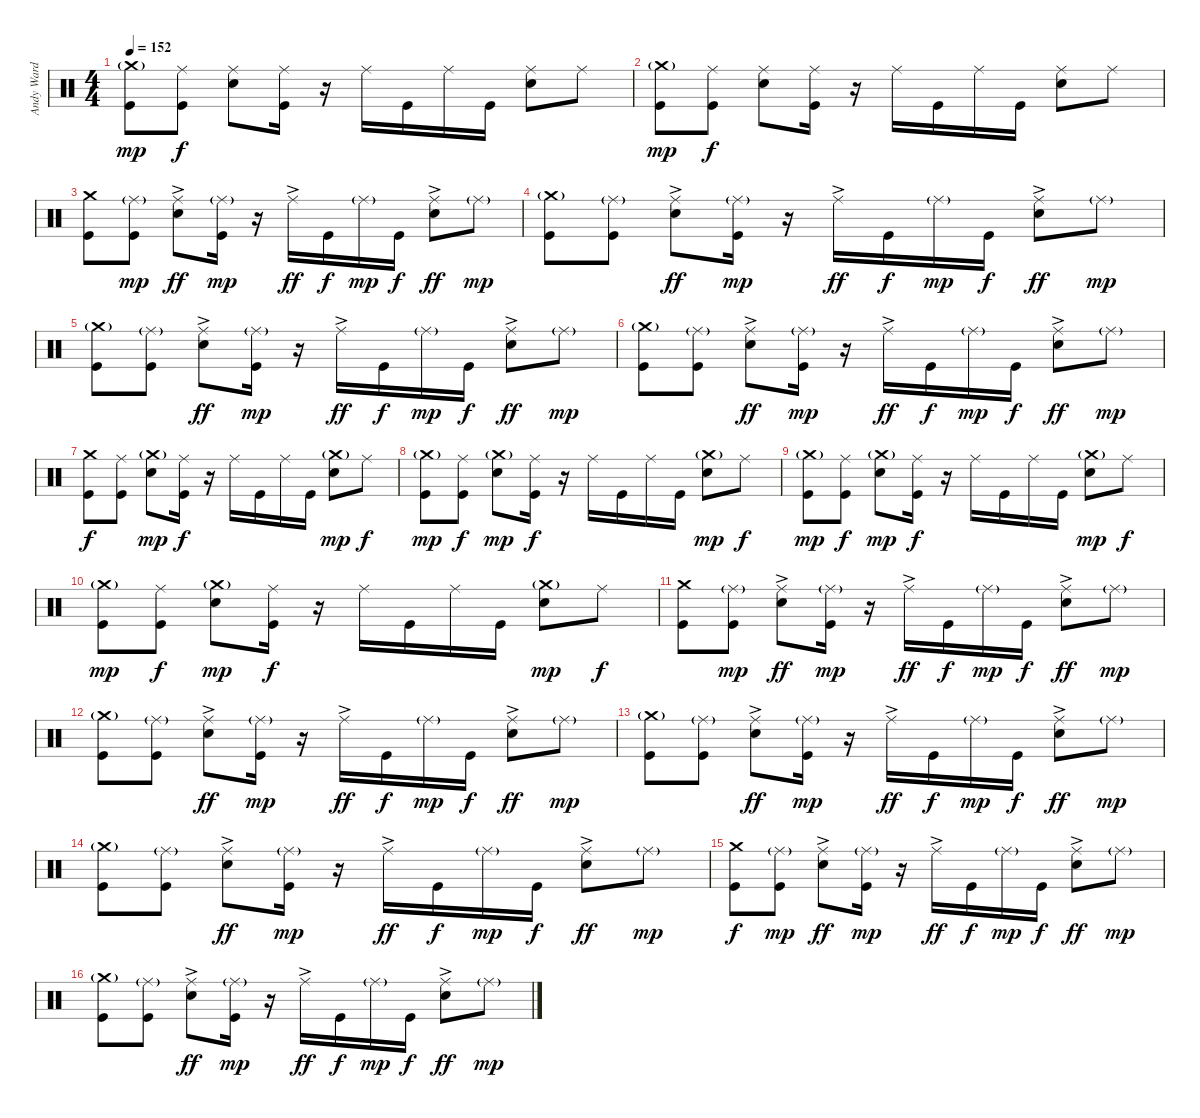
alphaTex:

\track ("Andy Ward (Drums)" "Andy Ward ") {instrument percussion}
\staff {score}
\articulation defaults
\ts (4 4)
\tempo 152
\clef neutral
\ks c
("Crash medium (hit)"{g} "Kick (hit)").8{dy mp} ("Ride (middle)" "Kick (hit)").8{dy f} ("Ride (middle)" "Electric Snare (hit)").8 ("Ride (middle)" "Kick (hit)").16 r.16 "Ride (middle)".16 "Kick (hit)".16 "Ride (middle)".16 "Kick (hit)".16 ("Ride (middle)" "Electric Snare (hit)").8 "Ride (middle)".8 |
("Crash medium (hit)"{g} "Kick (hit)").8{dy mp} ("Ride (middle)" "Kick (hit)").8{dy f} ("Ride (middle)" "Electric Snare (hit)").8 ("Ride (middle)" "Kick (hit)").16 r.16 "Ride (middle)".16 "Kick (hit)".16 "Ride (middle)".16 "Kick (hit)".16 ("Ride (middle)" "Electric Snare (hit)").8 "Ride (middle)".8 |
("Crash medium (hit)" "Kick (hit)").8 ("Ride (middle)"{g} "Kick (hit)").8{dy mp} ("Ride (middle)"{ac} "Electric Snare (hit)").8{dy ff} ("Ride (middle)"{g} "Kick (hit)").16{dy mp} r.16 "Ride (middle)"{ac}.16{dy ff} "Kick (hit)".16{dy f} "Ride (middle)"{g}.16{dy mp} "Kick (hit)".16{dy f} ("Ride (middle)"{ac} "Electric Snare (hit)").8{dy ff} "Ride (middle)"{g}.8{dy mp} |
("Crash medium (hit)"{g} "Kick (hit)").8 ("Ride (middle)"{g} "Kick (hit)").8 ("Ride (middle)"{ac} "Electric Snare (hit)").8{dy ff} ("Ride (middle)"{g} "Kick (hit)").16{dy mp} r.16 "Ride (middle)"{ac}.16{dy ff} "Kick (hit)".16{dy f} "Ride (middle)"{g}.16{dy mp} "Kick (hit)".16{dy f} ("Ride (middle)"{ac} "Electric Snare (hit)").8{dy ff} "Ride (middle)"{g}.8{dy mp} |
("Crash medium (hit)"{g} "Kick (hit)").8 ("Ride (middle)"{g} "Kick (hit)").8 ("Ride (middle)"{ac} "Electric Snare (hit)").8{dy ff} ("Ride (middle)"{g} "Kick (hit)").16{dy mp} r.16 "Ride (middle)"{ac}.16{dy ff} "Kick (hit)".16{dy f} "Ride (middle)"{g}.16{dy mp} "Kick (hit)".16{dy f} ("Ride (middle)"{ac} "Electric Snare (hit)").8{dy ff} "Ride (middle)"{g}.8{dy mp} |
("Crash medium (hit)"{g} "Kick (hit)").8 ("Ride (middle)"{g} "Kick (hit)").8 ("Ride (middle)"{ac} "Electric Snare (hit)").8{dy ff} ("Ride (middle)"{g} "Kick (hit)").16{dy mp} r.16 "Ride (middle)"{ac}.16{dy ff} "Kick (hit)".16{dy f} "Ride (middle)"{g}.16{dy mp} "Kick (hit)".16{dy f} ("Ride (middle)"{ac} "Electric Snare (hit)").8{dy ff} "Ride (middle)"{g}.8{dy mp} |
("Crash medium (hit)" "Kick (hit)").8{dy f} ("Ride (middle)" "Kick (hit)").8 ("Crash medium (hit)"{g} "Electric Snare (hit)").8{dy mp} ("Ride (middle)" "Kick (hit)").16{dy f} r.16 "Ride (middle)".16 "Kick (hit)".16 "Ride (middle)".16 "Kick (hit)".16 ("Crash medium (hit)"{g} "Electric Snare (hit)").8{dy mp} "Ride (middle)".8{dy f} |
("Crash medium (hit)"{g} "Kick (hit)").8{dy mp} ("Ride (middle)" "Kick (hit)").8{dy f} ("Crash medium (hit)"{g} "Electric Snare (hit)").8{dy mp} ("Ride (middle)" "Kick (hit)").16{dy f} r.16 "Ride (middle)".16 "Kick (hit)".16 "Ride (middle)".16 "Kick (hit)".16 ("Crash medium (hit)"{g} "Electric Snare (hit)").8{dy mp} "Ride (middle)".8{dy f} |
("Crash medium (hit)"{g} "Kick (hit)").8{dy mp} ("Ride (middle)" "Kick (hit)").8{dy f} ("Crash medium (hit)"{g} "Electric Snare (hit)").8{dy mp} ("Ride (middle)" "Kick (hit)").16{dy f} r.16 "Ride (middle)".16 "Kick (hit)".16 "Ride (middle)".16 "Kick (hit)".16 ("Crash medium (hit)"{g} "Electric Snare (hit)").8{dy mp} "Ride (middle)".8{dy f} |
("Crash medium (hit)"{g} "Kick (hit)").8{dy mp} ("Ride (middle)" "Kick (hit)").8{dy f} ("Crash medium (hit)"{g} "Electric Snare (hit)").8{dy mp} ("Ride (middle)" "Kick (hit)").16{dy f} r.16 "Ride (middle)".16 "Kick (hit)".16 "Ride (middle)".16 "Kick (hit)".16 ("Crash medium (hit)"{g} "Electric Snare (hit)").8{dy mp} "Ride (middle)".8{dy f} |
("Crash medium (hit)" "Kick (hit)").8 ("Ride (middle)"{g} "Kick (hit)").8{dy mp} ("Ride (middle)"{ac} "Electric Snare (hit)").8{dy ff} ("Ride (middle)"{g} "Kick (hit)").16{dy mp} r.16 "Ride (middle)"{ac}.16{dy ff} "Kick (hit)".16{dy f} "Ride (middle)"{g}.16{dy mp} "Kick (hit)".16{dy f} ("Ride (middle)"{ac} "Electric Snare (hit)").8{dy ff} "Ride (middle)"{g}.8{dy mp} |
("Crash medium (hit)"{g} "Kick (hit)").8 ("Ride (middle)"{g} "Kick (hit)").8 ("Ride (middle)"{ac} "Electric Snare (hit)").8{dy ff} ("Ride (middle)"{g} "Kick (hit)").16{dy mp} r.16 "Ride (middle)"{ac}.16{dy ff} "Kick (hit)".16{dy f} "Ride (middle)"{g}.16{dy mp} "Kick (hit)".16{dy f} ("Ride (middle)"{ac} "Electric Snare (hit)").8{dy ff} "Ride (middle)"{g}.8{dy mp} |
("Crash medium (hit)"{g} "Kick (hit)").8 ("Ride (middle)"{g} "Kick (hit)").8 ("Ride (middle)"{ac} "Electric Snare (hit)").8{dy ff} ("Ride (middle)"{g} "Kick (hit)").16{dy mp} r.16 "Ride (middle)"{ac}.16{dy ff} "Kick (hit)".16{dy f} "Ride (middle)"{g}.16{dy mp} "Kick (hit)".16{dy f} ("Ride (middle)"{ac} "Electric Snare (hit)").8{dy ff} "Ride (middle)"{g}.8{dy mp} |
("Crash medium (hit)"{g} "Kick (hit)").8 ("Ride (middle)"{g} "Kick (hit)").8 ("Ride (middle)"{ac} "Electric Snare (hit)").8{dy ff} ("Ride (middle)"{g} "Kick (hit)").16{dy mp} r.16 "Ride (middle)"{ac}.16{dy ff} "Kick (hit)".16{dy f} "Ride (middle)"{g}.16{dy mp} "Kick (hit)".16{dy f} ("Ride (middle)"{ac} "Electric Snare (hit)").8{dy ff} "Ride (middle)"{g}.8{dy mp} |
("Crash medium (hit)" "Kick (hit)").8{dy f} ("Ride (middle)"{g} "Kick (hit)").8{dy mp} ("Ride (middle)"{ac} "Electric Snare (hit)").8{dy ff} ("Ride (middle)"{g} "Kick (hit)").16{dy mp} r.16 "Ride (middle)"{ac}.16{dy ff} "Kick (hit)".16{dy f} "Ride (middle)"{g}.16{dy mp} "Kick (hit)".16{dy f} ("Ride (middle)"{ac} "Electric Snare (hit)").8{dy ff} "Ride (middle)"{g}.8{dy mp} |
("Crash medium (hit)"{g} "Kick (hit)").8 ("Ride (middle)"{g} "Kick (hit)").8 ("Ride (middle)"{ac} "Electric Snare (hit)").8{dy ff} ("Ride (middle)"{g} "Kick (hit)").16{dy mp} r.16 "Ride (middle)"{ac}.16{dy ff} "Kick (hit)".16{dy f} "Ride (middle)"{g}.16{dy mp} "Kick (hit)".16{dy f} ("Ride (middle)"{ac} "Electric Snare (hit)").8{dy ff} "Ride (middle)"{g}.8{dy mp}
